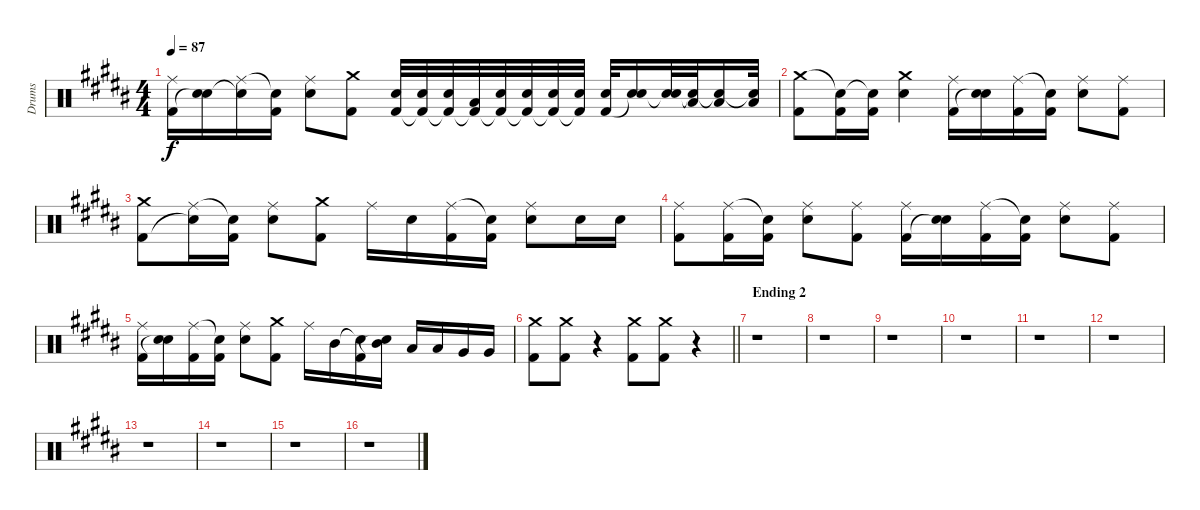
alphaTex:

\track ("Drums" "Drums") {instrument percussion}
\staff {score}
\articulation defaults
\ts (4 4)
\tempo 87
\clef neutral
\ks b
("Ride (middle)" "Kick (hit) 2").16{dy f} ("Electric Snare (hit)" "Snare (hit)"{t}).16 ("Ride (middle)" "Snare (hit)"{t}).16 ("Snare (hit)"{t} "Kick (hit) 2").16 ("Ride (middle)" "Electric Snare (hit)").8 ("Crash medium (hit)" "Kick (hit) 2").8 ("Electric Snare (hit)" "Kick (hit) 2").32 ("Electric Snare (hit)" "Kick (hit) 2"{t}).32 ("Electric Snare (hit)" "Kick (hit) 2"{t}).32 ("Low Tom (hit)" "Kick (hit) 2"{t}).32 ("Electric Snare (hit)" "Kick (hit) 2"{t}).32 ("Electric Snare (hit)" "Kick (hit) 2"{t}).32 ("Electric Snare (hit)" "Kick (hit) 2"{t}).32 ("Electric Snare (hit)" "Kick (hit) 2"{t}).32 ("Electric Snare (hit)" "Kick (hit) 2").32 ("Electric Snare (hit)" "Snare (hit)"{t}).16 ("Electric Snare (hit)" "Snare (hit)"{t}).32 ("Low Tom (hit)" "Snare (hit)"{t}).32 ("Low Tom (hit)" "Snare (hit)"{t}).16 ("Low Tom (hit)" "Snare (hit)"{t}).32 |
("Crash medium (hit)" "Kick (hit) 2").8 ("Snare (hit)"{t} "Kick (hit) 2").16 ("Snare (hit)"{t} "Kick (hit) 2").16 ("Crash medium (hit)" "Electric Snare (hit)").4 ("Ride (middle)" "Kick (hit) 2").16 ("Electric Snare (hit)" "Snare (hit)"{t}).16 ("Ride (middle)" "Kick (hit) 2").16 ("Snare (hit)"{t} "Kick (hit) 2").16 ("Ride (middle)" "Electric Snare (hit)").8 ("Ride (middle)" "Kick (hit) 2").8 |
("Crash medium (hit)" "Kick (hit) 2").8 ("Ride (middle)" "Snare (hit)"{t}).16 ("Snare (hit)"{t} "Kick (hit) 2").16 ("Ride (middle)" "Electric Snare (hit)").8 ("Crash medium (hit)" "Kick (hit) 2").8 "Ride (middle)".16 "Electric Snare (hit)".16 ("Ride (middle)" "Kick (hit) 2").16 ("Snare (hit)"{t} "Kick (hit) 2").16 ("Ride (middle)" "Electric Snare (hit)").8 "Electric Snare (hit)".16 "Electric Snare (hit)".16 |
("Ride (middle)" "Kick (hit) 2").8 ("Ride (middle)" "Kick (hit) 2").16 ("Snare (hit)"{t} "Kick (hit) 2").16 ("Ride (middle)" "Electric Snare (hit)").8 ("Ride (middle)" "Kick (hit) 2").8 ("Ride (middle)" "Kick (hit) 2").16 ("Electric Snare (hit)" "Snare (hit)"{t}).16 ("Ride (middle)" "Kick (hit) 2").16 ("Snare (hit)"{t} "Kick (hit) 2").16 ("Ride (middle)" "Electric Snare (hit)").8 ("Ride (middle)" "Kick (hit) 2").8 |
("Ride (middle)" "Kick (hit) 2").16 ("Electric Snare (hit)" "Snare (hit)"{t}).16 ("Ride (middle)" "Kick (hit) 2").16 ("Snare (hit)"{t} "Kick (hit) 2").16 ("Ride (middle)" "Electric Snare (hit)").8 ("Crash medium (hit)" "Kick (hit) 2").8 "Ride (middle)".16 "Mid Tom (hit)".16 ("Snare (hit)"{t} "Kick (hit) 2").16 ("Mid Tom (hit)" "Snare (hit)"{t}).16 "Low Tom (hit)".16 "Low Tom (hit)".16 "Very Low Tom (hit)".16 "Very Low Tom (hit)".16 |
\barLineRight lightlight
("Crash medium (hit)" "Kick (hit) 2").8 ("Crash medium (hit)" "Kick (hit) 2").8 r.4 ("Crash medium (hit)" "Kick (hit) 2").8 ("Crash medium (hit)" "Kick (hit) 2").8 r.4 |
\section ("" "Ending 2")
r.1 |
r.1 |
r.1 |
r.1 |
r.1 |
r.1 |
r.1 |
r.1 |
r.1 |
r.1
